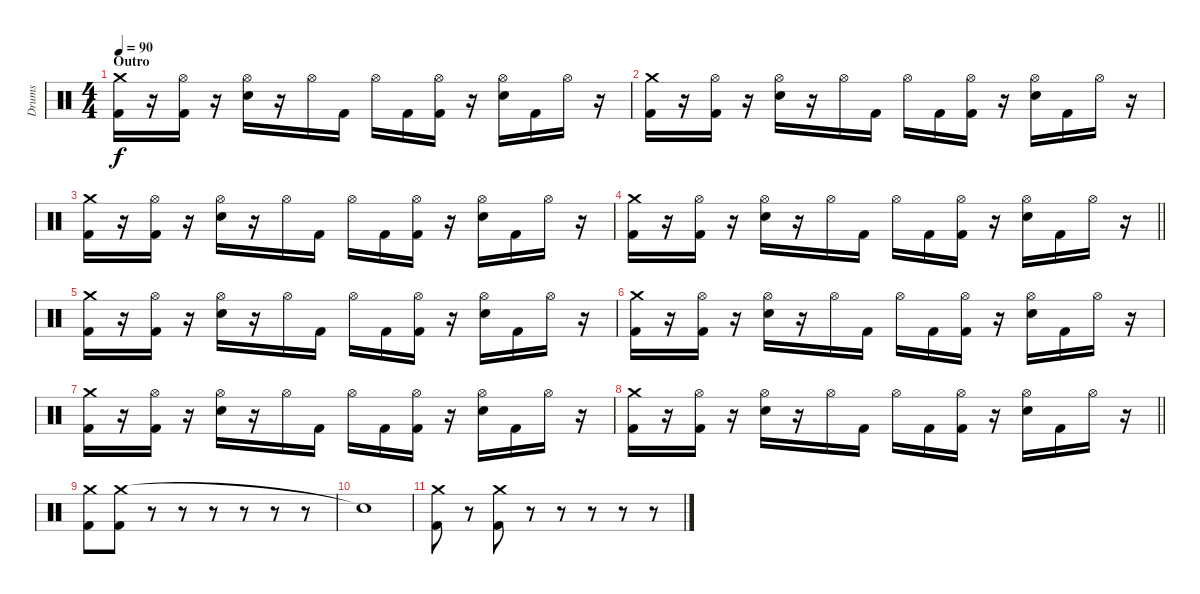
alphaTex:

\track ("Drums" "Drums") {instrument percussion}
\staff {score}
\articulation defaults
\ts (4 4)
\section ("" "Outro")
\tempo 90
\clef neutral
\ks c
("Crash medium (hit)" "Kick (hit) 2").16{dy f} r.16 ("Hi-Hat (open)" "Kick (hit) 2").16 r.16 ("Hi-Hat (open)" "Electric Snare (hit)").16 r.16 "Hi-Hat (open)".16 "Kick (hit) 2".16 "Hi-Hat (open)".16 "Kick (hit) 2".16 ("Hi-Hat (open)" "Kick (hit) 2").16 r.16 ("Hi-Hat (open)" "Electric Snare (hit)").16 "Kick (hit) 2".16 "Hi-Hat (open)".16 r.16 |
("Crash medium (hit)" "Kick (hit) 2").16 r.16 ("Hi-Hat (open)" "Kick (hit) 2").16 r.16 ("Hi-Hat (open)" "Electric Snare (hit)").16 r.16 "Hi-Hat (open)".16 "Kick (hit) 2".16 "Hi-Hat (open)".16 "Kick (hit) 2".16 ("Hi-Hat (open)" "Kick (hit) 2").16 r.16 ("Hi-Hat (open)" "Electric Snare (hit)").16 "Kick (hit) 2".16 "Hi-Hat (open)".16 r.16 |
("Crash medium (hit)" "Kick (hit) 2").16 r.16 ("Hi-Hat (open)" "Kick (hit) 2").16 r.16 ("Hi-Hat (open)" "Electric Snare (hit)").16 r.16 "Hi-Hat (open)".16 "Kick (hit) 2".16 "Hi-Hat (open)".16 "Kick (hit) 2".16 ("Hi-Hat (open)" "Kick (hit) 2").16 r.16 ("Hi-Hat (open)" "Electric Snare (hit)").16 "Kick (hit) 2".16 "Hi-Hat (open)".16 r.16 |
\barLineRight lightlight
("Crash medium (hit)" "Kick (hit) 2").16 r.16 ("Hi-Hat (open)" "Kick (hit) 2").16 r.16 ("Hi-Hat (open)" "Electric Snare (hit)").16 r.16 "Hi-Hat (open)".16 "Kick (hit) 2".16 "Hi-Hat (open)".16 "Kick (hit) 2".16 ("Hi-Hat (open)" "Kick (hit) 2").16 r.16 ("Hi-Hat (open)" "Electric Snare (hit)").16 "Kick (hit) 2".16 "Hi-Hat (open)".16 r.16 |
("Crash medium (hit)" "Kick (hit) 2").16 r.16 ("Hi-Hat (open)" "Kick (hit) 2").16 r.16 ("Hi-Hat (open)" "Electric Snare (hit)").16 r.16 "Hi-Hat (open)".16 "Kick (hit) 2".16 "Hi-Hat (open)".16 "Kick (hit) 2".16 ("Hi-Hat (open)" "Kick (hit) 2").16 r.16 ("Hi-Hat (open)" "Electric Snare (hit)").16 "Kick (hit) 2".16 "Hi-Hat (open)".16 r.16 |
("Crash medium (hit)" "Kick (hit) 2").16 r.16 ("Hi-Hat (open)" "Kick (hit) 2").16 r.16 ("Hi-Hat (open)" "Electric Snare (hit)").16 r.16 "Hi-Hat (open)".16 "Kick (hit) 2".16 "Hi-Hat (open)".16 "Kick (hit) 2".16 ("Hi-Hat (open)" "Kick (hit) 2").16 r.16 ("Hi-Hat (open)" "Electric Snare (hit)").16 "Kick (hit) 2".16 "Hi-Hat (open)".16 r.16 |
("Crash medium (hit)" "Kick (hit) 2").16 r.16 ("Hi-Hat (open)" "Kick (hit) 2").16 r.16 ("Hi-Hat (open)" "Electric Snare (hit)").16 r.16 "Hi-Hat (open)".16 "Kick (hit) 2".16 "Hi-Hat (open)".16 "Kick (hit) 2".16 ("Hi-Hat (open)" "Kick (hit) 2").16 r.16 ("Hi-Hat (open)" "Electric Snare (hit)").16 "Kick (hit) 2".16 "Hi-Hat (open)".16 r.16 |
\barLineRight lightlight
("Crash medium (hit)" "Kick (hit) 2").16 r.16 ("Hi-Hat (open)" "Kick (hit) 2").16 r.16 ("Hi-Hat (open)" "Electric Snare (hit)").16 r.16 "Hi-Hat (open)".16 "Kick (hit) 2".16 "Hi-Hat (open)".16 "Kick (hit) 2".16 ("Hi-Hat (open)" "Kick (hit) 2").16 r.16 ("Hi-Hat (open)" "Electric Snare (hit)").16 "Kick (hit) 2".16 "Hi-Hat (open)".16 r.16 |
("Crash medium (hit)" "Kick (hit) 2").8 ("Crash medium (hit)" "Kick (hit) 2").8 r.8 r.8 r.8 r.8 r.8 r.8 |
"Snare (hit)"{t}.1 |
("Crash medium (hit)" "Kick (hit) 2").8 r.8 ("Crash medium (hit)" "Kick (hit) 2").8 r.8 r.8 r.8 r.8 r.8
